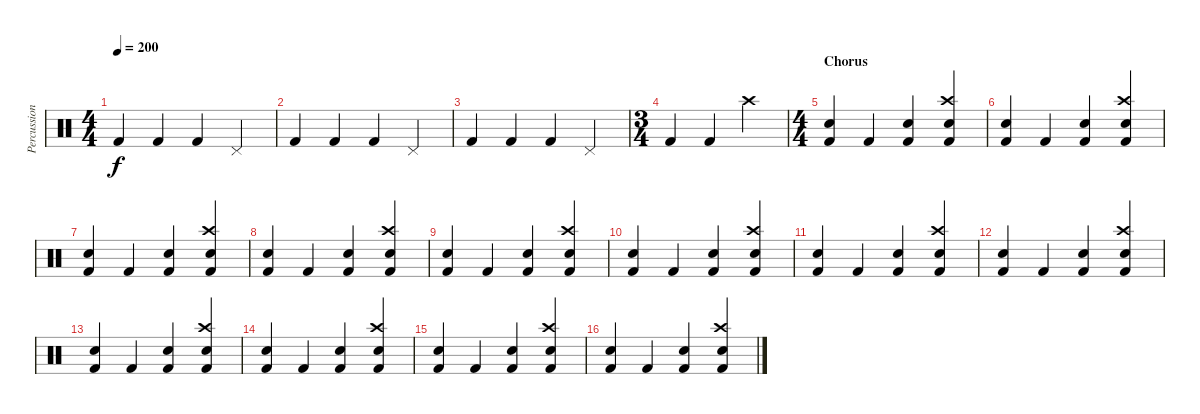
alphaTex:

\track ("Percussion" "Percussion") {instrument percussion}
\staff {score}
\articulation defaults
\ts (4 4)
\tempo 200
\clef neutral
\ks c "Kick (hit) 2".4{dy f} "Kick (hit) 2".4 "Kick (hit) 2".4 "Pedal Hi-Hat (hit)".4
|
"Kick (hit) 2".4 "Kick (hit) 2".4 "Kick (hit) 2".4 "Pedal Hi-Hat (hit)".4 |
"Kick (hit) 2".4 "Kick (hit) 2".4 "Kick (hit) 2".4 "Pedal Hi-Hat (hit)".4 |
\ts (3 4)
"Kick (hit) 2".4 "Kick (hit) 2".4 "Crash high (hit)".4 |
\ts (4 4)
\section ("" "Chorus")
("Snare (hit) 2" "Kick (hit) 2").4 "Kick (hit) 2".4 ("Snare (hit) 2" "Kick (hit) 2").4 ("Crash high (hit)" "Snare (hit) 2" "Kick (hit) 2").4 |
("Snare (hit) 2" "Kick (hit) 2").4 "Kick (hit) 2".4 ("Snare (hit) 2" "Kick (hit) 2").4 ("Crash high (hit)" "Snare (hit) 2" "Kick (hit) 2").4 |
("Snare (hit) 2" "Kick (hit) 2").4 "Kick (hit) 2".4 ("Snare (hit) 2" "Kick (hit) 2").4 ("Crash high (hit)" "Snare (hit) 2" "Kick (hit) 2").4 |
("Snare (hit) 2" "Kick (hit) 2").4 "Kick (hit) 2".4 ("Snare (hit) 2" "Kick (hit) 2").4 ("Crash high (hit)" "Snare (hit) 2" "Kick (hit) 2").4 |
("Snare (hit) 2" "Kick (hit) 2").4 "Kick (hit) 2".4 ("Snare (hit) 2" "Kick (hit) 2").4 ("Crash high (hit)" "Snare (hit) 2" "Kick (hit) 2").4 |
("Snare (hit) 2" "Kick (hit) 2").4 "Kick (hit) 2".4 ("Snare (hit) 2" "Kick (hit) 2").4 ("Crash high (hit)" "Snare (hit) 2" "Kick (hit) 2").4 |
("Snare (hit) 2" "Kick (hit) 2").4 "Kick (hit) 2".4 ("Snare (hit) 2" "Kick (hit) 2").4 ("Crash high (hit)" "Snare (hit) 2" "Kick (hit) 2").4 |
("Snare (hit) 2" "Kick (hit) 2").4 "Kick (hit) 2".4 ("Snare (hit) 2" "Kick (hit) 2").4 ("Crash high (hit)" "Snare (hit) 2" "Kick (hit) 2").4 |
("Snare (hit) 2" "Kick (hit) 2").4 "Kick (hit) 2".4 ("Snare (hit) 2" "Kick (hit) 2").4 ("Crash high (hit)" "Snare (hit) 2" "Kick (hit) 2").4 |
("Snare (hit) 2" "Kick (hit) 2").4 "Kick (hit) 2".4 ("Snare (hit) 2" "Kick (hit) 2").4 ("Crash high (hit)" "Snare (hit) 2" "Kick (hit) 2").4 |
("Snare (hit) 2" "Kick (hit) 2").4 "Kick (hit) 2".4 ("Snare (hit) 2" "Kick (hit) 2").4 ("Crash high (hit)" "Snare (hit) 2" "Kick (hit) 2").4 |
("Snare (hit) 2" "Kick (hit) 2").4 "Kick (hit) 2".4 ("Snare (hit) 2" "Kick (hit) 2").4 ("Crash high (hit)" "Snare (hit) 2" "Kick (hit) 2").4
